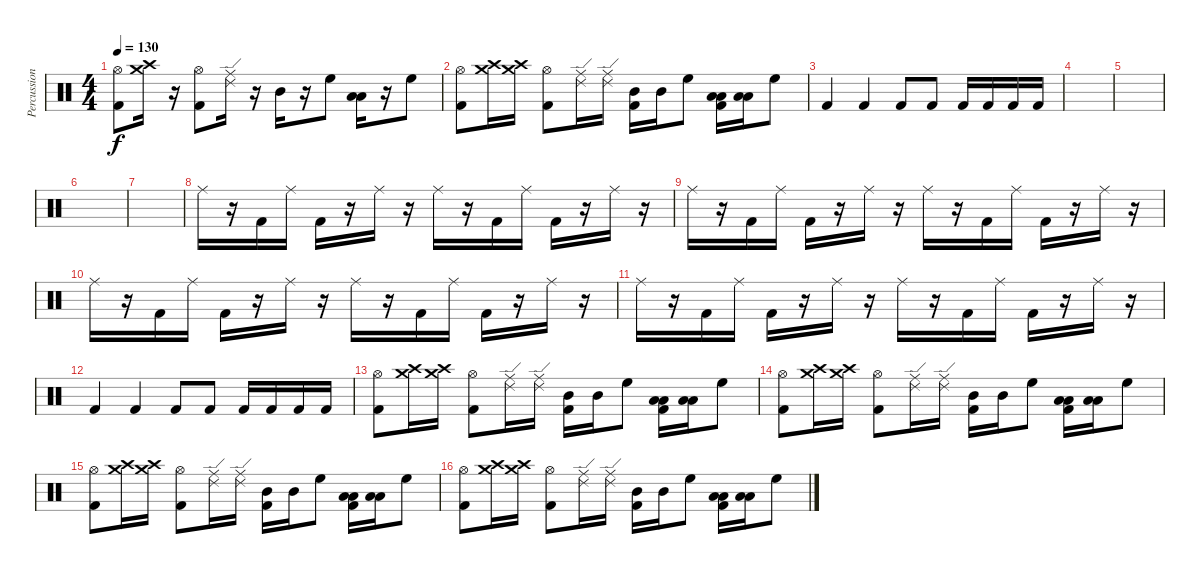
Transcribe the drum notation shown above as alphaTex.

\track ("Percussions" "Percussion") {instrument percussion}
\staff {score}
\articulation defaults
\ts (4 4)
\tempo 130
\clef neutral
\ks c
("Hi-Hat (open)" "Kick (hit) 2").8{dy f} ("Crash high (hit)" "Crash medium (hit)").16 r.16 ("Hi-Hat (open)" "Kick (hit) 2").8 ("Ride (middle)" "Ride (edge) 2").16 r.16 "Mid Tom (hit)".16 r.16 "High Floor Tom (hit)".8 ("Low Tom (hit)" "Low Floor Tom (hit)").16 r.16 "High Floor Tom (hit)".8 |
("Hi-Hat (open)" "Kick (hit) 2").8 ("Crash high (hit)" "Crash medium (hit)").16 ("Crash high (hit)" "Crash medium (hit)").16 ("Hi-Hat (open)" "Kick (hit) 2").8 ("Ride (middle)" "Ride (edge) 2").16 ("Ride (middle)" "Ride (edge) 2").16 ("Mid Tom (hit)" "Kick (hit) 2").16 "Mid Tom (hit)".16 "High Floor Tom (hit)".8 ("Low Tom (hit)" "Low Floor Tom (hit)" "Kick (hit) 2").16 ("Low Tom (hit)" "Low Floor Tom (hit)").16 "High Floor Tom (hit)".8 |
"Kick (hit) 2".4 "Kick (hit) 2".4 "Kick (hit) 2".8 "Kick (hit) 2".8 "Kick (hit) 2".16 "Kick (hit) 2".16 "Kick (hit) 2".16 "Kick (hit) 2".16 |
|
|
|
|
"Ride (middle)".16 r.16 "Kick (hit) 2".16 "Ride (middle)".16 "Kick (hit) 2".16 r.16 "Ride (middle)".16 r.16 "Ride (middle)".16 r.16 "Kick (hit) 2".16 "Ride (middle)".16 "Kick (hit) 2".16 r.16 "Ride (middle)".16 r.16 |
"Ride (middle)".16 r.16 "Kick (hit) 2".16 "Ride (middle)".16 "Kick (hit) 2".16 r.16 "Ride (middle)".16 r.16 "Ride (middle)".16 r.16 "Kick (hit) 2".16 "Ride (middle)".16 "Kick (hit) 2".16 r.16 "Ride (middle)".16 r.16 |
"Ride (middle)".16 r.16 "Kick (hit) 2".16 "Ride (middle)".16 "Kick (hit) 2".16 r.16 "Ride (middle)".16 r.16 "Ride (middle)".16 r.16 "Kick (hit) 2".16 "Ride (middle)".16 "Kick (hit) 2".16 r.16 "Ride (middle)".16 r.16 |
"Ride (middle)".16 r.16 "Kick (hit) 2".16 "Ride (middle)".16 "Kick (hit) 2".16 r.16 "Ride (middle)".16 r.16 "Ride (middle)".16 r.16 "Kick (hit) 2".16 "Ride (middle)".16 "Kick (hit) 2".16 r.16 "Ride (middle)".16 r.16 |
"Kick (hit) 2".4 "Kick (hit) 2".4 "Kick (hit) 2".8 "Kick (hit) 2".8 "Kick (hit) 2".16 "Kick (hit) 2".16 "Kick (hit) 2".16 "Kick (hit) 2".16 |
("Hi-Hat (open)" "Kick (hit) 2").8 ("Crash high (hit)" "Crash medium (hit)").16 ("Crash high (hit)" "Crash medium (hit)").16 ("Hi-Hat (open)" "Kick (hit) 2").8 ("Ride (middle)" "Ride (edge) 2").16 ("Ride (middle)" "Ride (edge) 2").16 ("Mid Tom (hit)" "Kick (hit) 2").16 "Mid Tom (hit)".16 "High Floor Tom (hit)".8 ("Low Tom (hit)" "Low Floor Tom (hit)" "Kick (hit) 2").16 ("Low Tom (hit)" "Low Floor Tom (hit)").16 "High Floor Tom (hit)".8 |
("Hi-Hat (open)" "Kick (hit) 2").8 ("Crash high (hit)" "Crash medium (hit)").16 ("Crash high (hit)" "Crash medium (hit)").16 ("Hi-Hat (open)" "Kick (hit) 2").8 ("Ride (middle)" "Ride (edge) 2").16 ("Ride (middle)" "Ride (edge) 2").16 ("Mid Tom (hit)" "Kick (hit) 2").16 "Mid Tom (hit)".16 "High Floor Tom (hit)".8 ("Low Tom (hit)" "Low Floor Tom (hit)" "Kick (hit) 2").16 ("Low Tom (hit)" "Low Floor Tom (hit)").16 "High Floor Tom (hit)".8 |
("Hi-Hat (open)" "Kick (hit) 2").8 ("Crash high (hit)" "Crash medium (hit)").16 ("Crash high (hit)" "Crash medium (hit)").16 ("Hi-Hat (open)" "Kick (hit) 2").8 ("Ride (middle)" "Ride (edge) 2").16 ("Ride (middle)" "Ride (edge) 2").16 ("Mid Tom (hit)" "Kick (hit) 2").16 "Mid Tom (hit)".16 "High Floor Tom (hit)".8 ("Low Tom (hit)" "Low Floor Tom (hit)" "Kick (hit) 2").16 ("Low Tom (hit)" "Low Floor Tom (hit)").16 "High Floor Tom (hit)".8 |
("Hi-Hat (open)" "Kick (hit) 2").8 ("Crash high (hit)" "Crash medium (hit)").16 ("Crash high (hit)" "Crash medium (hit)").16 ("Hi-Hat (open)" "Kick (hit) 2").8 ("Ride (middle)" "Ride (edge) 2").16 ("Ride (middle)" "Ride (edge) 2").16 ("Mid Tom (hit)" "Kick (hit) 2").16 "Mid Tom (hit)".16 "High Floor Tom (hit)".8 ("Low Tom (hit)" "Low Floor Tom (hit)" "Kick (hit) 2").16 ("Low Tom (hit)" "Low Floor Tom (hit)").16 "High Floor Tom (hit)".8
